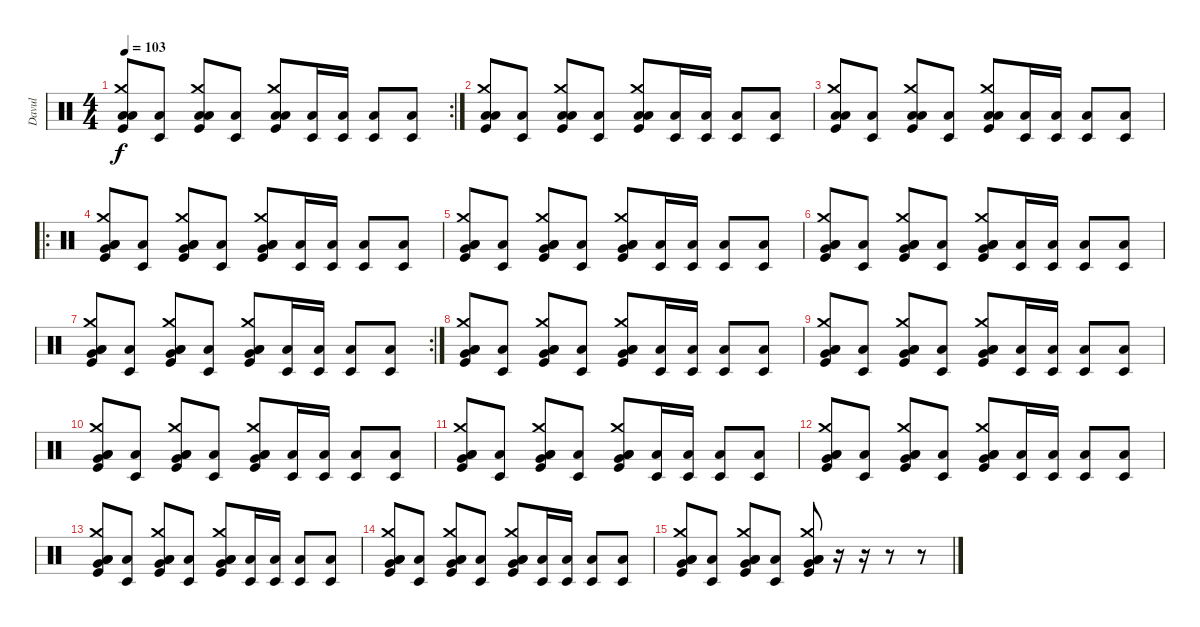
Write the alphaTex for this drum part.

\track ("Davul" "Davul") {instrument percussion}
\staff {score}
\articulation defaults
\rc 2
\ts (4 4)
\tempo 103
\clef neutral
\ks c
("Kick (hit)" "Low Tom (hit)" "Low Floor Tom (hit)" "Crash medium (hit)").8{dy f} ("Timbale low (hit)" "Low Floor Tom (hit)").8 ("Kick (hit)" "Low Tom (hit)" "Low Floor Tom (hit)" "Crash medium (hit)").8 ("Timbale low (hit)" "Low Floor Tom (hit)").8 ("Kick (hit)" "Low Tom (hit)" "Low Floor Tom (hit)" "Crash medium (hit)").8 ("Timbale low (hit)" "Low Floor Tom (hit)").16 ("Timbale low (hit)" "Low Floor Tom (hit)").16 ("Timbale low (hit)" "Low Floor Tom (hit)").8 ("Timbale low (hit)" "Low Floor Tom (hit)").8 |
("Kick (hit)" "Low Tom (hit)" "Low Floor Tom (hit)" "Crash medium (hit)").8 ("Timbale low (hit)" "Low Floor Tom (hit)").8 ("Kick (hit)" "Low Tom (hit)" "Low Floor Tom (hit)" "Crash medium (hit)").8 ("Timbale low (hit)" "Low Floor Tom (hit)").8 ("Kick (hit)" "Low Tom (hit)" "Low Floor Tom (hit)" "Crash medium (hit)").8 ("Timbale low (hit)" "Low Floor Tom (hit)").16 ("Timbale low (hit)" "Low Floor Tom (hit)").16 ("Timbale low (hit)" "Low Floor Tom (hit)").8 ("Timbale low (hit)" "Low Floor Tom (hit)").8 |
("Kick (hit)" "Low Tom (hit)" "Low Floor Tom (hit)" "Crash medium (hit)").8 ("Timbale low (hit)" "Low Floor Tom (hit)").8 ("Kick (hit)" "Low Tom (hit)" "Low Floor Tom (hit)" "Crash medium (hit)").8 ("Timbale low (hit)" "Low Floor Tom (hit)").8 ("Kick (hit)" "Low Tom (hit)" "Low Floor Tom (hit)" "Crash medium (hit)").8 ("Timbale low (hit)" "Low Floor Tom (hit)").16 ("Timbale low (hit)" "Low Floor Tom (hit)").16 ("Timbale low (hit)" "Low Floor Tom (hit)").8 ("Timbale low (hit)" "Low Floor Tom (hit)").8 |
\ro
("Kick (hit)" "Low Tom (hit)" "Low Floor Tom (hit)" "Very Low Tom (hit)" "Crash medium (hit)").8 ("Timbale low (hit)" "Low Floor Tom (hit)").8 ("Kick (hit)" "Low Tom (hit)" "Low Floor Tom (hit)" "Very Low Tom (hit)" "Crash medium (hit)").8 ("Timbale low (hit)" "Low Floor Tom (hit)").8 ("Kick (hit)" "Low Tom (hit)" "Low Floor Tom (hit)" "Very Low Tom (hit)" "Crash medium (hit)").8 ("Timbale low (hit)" "Low Floor Tom (hit)").16 ("Timbale low (hit)" "Low Floor Tom (hit)").16 ("Timbale low (hit)" "Low Floor Tom (hit)").8 ("Timbale low (hit)" "Low Floor Tom (hit)").8 |
("Kick (hit)" "Low Tom (hit)" "Low Floor Tom (hit)" "Very Low Tom (hit)" "Crash medium (hit)").8 ("Timbale low (hit)" "Low Floor Tom (hit)").8 ("Kick (hit)" "Low Tom (hit)" "Low Floor Tom (hit)" "Very Low Tom (hit)" "Crash medium (hit)").8 ("Timbale low (hit)" "Low Floor Tom (hit)").8 ("Kick (hit)" "Low Tom (hit)" "Low Floor Tom (hit)" "Very Low Tom (hit)" "Crash medium (hit)").8 ("Timbale low (hit)" "Low Floor Tom (hit)").16 ("Timbale low (hit)" "Low Floor Tom (hit)").16 ("Timbale low (hit)" "Low Floor Tom (hit)").8 ("Timbale low (hit)" "Low Floor Tom (hit)").8 |
("Kick (hit)" "Low Tom (hit)" "Low Floor Tom (hit)" "Very Low Tom (hit)" "Crash medium (hit)").8 ("Timbale low (hit)" "Low Floor Tom (hit)").8 ("Kick (hit)" "Low Tom (hit)" "Low Floor Tom (hit)" "Very Low Tom (hit)" "Crash medium (hit)").8 ("Timbale low (hit)" "Low Floor Tom (hit)").8 ("Kick (hit)" "Low Tom (hit)" "Low Floor Tom (hit)" "Very Low Tom (hit)" "Crash medium (hit)").8 ("Timbale low (hit)" "Low Floor Tom (hit)").16 ("Timbale low (hit)" "Low Floor Tom (hit)").16 ("Timbale low (hit)" "Low Floor Tom (hit)").8 ("Timbale low (hit)" "Low Floor Tom (hit)").8 |
\rc 2
("Kick (hit)" "Low Tom (hit)" "Low Floor Tom (hit)" "Very Low Tom (hit)" "Crash medium (hit)").8 ("Timbale low (hit)" "Low Floor Tom (hit)").8 ("Kick (hit)" "Low Tom (hit)" "Low Floor Tom (hit)" "Very Low Tom (hit)" "Crash medium (hit)").8 ("Timbale low (hit)" "Low Floor Tom (hit)").8 ("Kick (hit)" "Low Tom (hit)" "Low Floor Tom (hit)" "Very Low Tom (hit)" "Crash medium (hit)").8 ("Timbale low (hit)" "Low Floor Tom (hit)").16 ("Timbale low (hit)" "Low Floor Tom (hit)").16 ("Timbale low (hit)" "Low Floor Tom (hit)").8 ("Timbale low (hit)" "Low Floor Tom (hit)").8 |
("Kick (hit)" "Low Tom (hit)" "Low Floor Tom (hit)" "Very Low Tom (hit)" "Crash medium (hit)").8 ("Timbale low (hit)" "Low Floor Tom (hit)").8 ("Kick (hit)" "Low Tom (hit)" "Low Floor Tom (hit)" "Very Low Tom (hit)" "Crash medium (hit)").8 ("Timbale low (hit)" "Low Floor Tom (hit)").8 ("Kick (hit)" "Low Tom (hit)" "Low Floor Tom (hit)" "Very Low Tom (hit)" "Crash medium (hit)").8 ("Timbale low (hit)" "Low Floor Tom (hit)").16 ("Timbale low (hit)" "Low Floor Tom (hit)").16 ("Timbale low (hit)" "Low Floor Tom (hit)").8 ("Timbale low (hit)" "Low Floor Tom (hit)").8 |
("Kick (hit)" "Low Tom (hit)" "Low Floor Tom (hit)" "Very Low Tom (hit)" "Crash medium (hit)").8 ("Timbale low (hit)" "Low Floor Tom (hit)").8 ("Kick (hit)" "Low Tom (hit)" "Low Floor Tom (hit)" "Very Low Tom (hit)" "Crash medium (hit)").8 ("Timbale low (hit)" "Low Floor Tom (hit)").8 ("Kick (hit)" "Low Tom (hit)" "Low Floor Tom (hit)" "Very Low Tom (hit)" "Crash medium (hit)").8 ("Timbale low (hit)" "Low Floor Tom (hit)").16 ("Timbale low (hit)" "Low Floor Tom (hit)").16 ("Timbale low (hit)" "Low Floor Tom (hit)").8 ("Timbale low (hit)" "Low Floor Tom (hit)").8 |
("Kick (hit)" "Low Tom (hit)" "Low Floor Tom (hit)" "Very Low Tom (hit)" "Crash medium (hit)").8 ("Timbale low (hit)" "Low Floor Tom (hit)").8 ("Kick (hit)" "Low Tom (hit)" "Low Floor Tom (hit)" "Very Low Tom (hit)" "Crash medium (hit)").8 ("Timbale low (hit)" "Low Floor Tom (hit)").8 ("Kick (hit)" "Low Tom (hit)" "Low Floor Tom (hit)" "Very Low Tom (hit)" "Crash medium (hit)").8 ("Timbale low (hit)" "Low Floor Tom (hit)").16 ("Timbale low (hit)" "Low Floor Tom (hit)").16 ("Timbale low (hit)" "Low Floor Tom (hit)").8 ("Timbale low (hit)" "Low Floor Tom (hit)").8 |
("Kick (hit)" "Low Tom (hit)" "Low Floor Tom (hit)" "Very Low Tom (hit)" "Crash medium (hit)").8 ("Timbale low (hit)" "Low Floor Tom (hit)").8 ("Kick (hit)" "Low Tom (hit)" "Low Floor Tom (hit)" "Very Low Tom (hit)" "Crash medium (hit)").8 ("Timbale low (hit)" "Low Floor Tom (hit)").8 ("Kick (hit)" "Low Tom (hit)" "Low Floor Tom (hit)" "Very Low Tom (hit)" "Crash medium (hit)").8 ("Timbale low (hit)" "Low Floor Tom (hit)").16 ("Timbale low (hit)" "Low Floor Tom (hit)").16 ("Timbale low (hit)" "Low Floor Tom (hit)").8 ("Timbale low (hit)" "Low Floor Tom (hit)").8 |
("Kick (hit)" "Low Tom (hit)" "Low Floor Tom (hit)" "Very Low Tom (hit)" "Crash medium (hit)").8 ("Timbale low (hit)" "Low Floor Tom (hit)").8 ("Kick (hit)" "Low Tom (hit)" "Low Floor Tom (hit)" "Very Low Tom (hit)" "Crash medium (hit)").8 ("Timbale low (hit)" "Low Floor Tom (hit)").8 ("Kick (hit)" "Low Tom (hit)" "Low Floor Tom (hit)" "Very Low Tom (hit)" "Crash medium (hit)").8 ("Timbale low (hit)" "Low Floor Tom (hit)").16 ("Timbale low (hit)" "Low Floor Tom (hit)").16 ("Timbale low (hit)" "Low Floor Tom (hit)").8 ("Timbale low (hit)" "Low Floor Tom (hit)").8 |
("Kick (hit)" "Low Tom (hit)" "Low Floor Tom (hit)" "Very Low Tom (hit)" "Crash medium (hit)").8 ("Timbale low (hit)" "Low Floor Tom (hit)").8 ("Kick (hit)" "Low Tom (hit)" "Low Floor Tom (hit)" "Very Low Tom (hit)" "Crash medium (hit)").8 ("Timbale low (hit)" "Low Floor Tom (hit)").8 ("Kick (hit)" "Low Tom (hit)" "Low Floor Tom (hit)" "Very Low Tom (hit)" "Crash medium (hit)").8 ("Timbale low (hit)" "Low Floor Tom (hit)").16 ("Timbale low (hit)" "Low Floor Tom (hit)").16 ("Timbale low (hit)" "Low Floor Tom (hit)").8 ("Timbale low (hit)" "Low Floor Tom (hit)").8 |
("Kick (hit)" "Low Tom (hit)" "Low Floor Tom (hit)" "Very Low Tom (hit)" "Crash medium (hit)").8 ("Timbale low (hit)" "Low Floor Tom (hit)").8 ("Kick (hit)" "Low Tom (hit)" "Low Floor Tom (hit)" "Very Low Tom (hit)" "Crash medium (hit)").8 ("Timbale low (hit)" "Low Floor Tom (hit)").8 ("Kick (hit)" "Low Tom (hit)" "Low Floor Tom (hit)" "Very Low Tom (hit)" "Crash medium (hit)").8 ("Timbale low (hit)" "Low Floor Tom (hit)").16 ("Timbale low (hit)" "Low Floor Tom (hit)").16 ("Timbale low (hit)" "Low Floor Tom (hit)").8 ("Timbale low (hit)" "Low Floor Tom (hit)").8 |
("Kick (hit)" "Low Tom (hit)" "Low Floor Tom (hit)" "Very Low Tom (hit)" "Crash medium (hit)").8 ("Timbale low (hit)" "Low Floor Tom (hit)").8 ("Kick (hit)" "Low Tom (hit)" "Low Floor Tom (hit)" "Very Low Tom (hit)" "Crash medium (hit)").8 ("Timbale low (hit)" "Low Floor Tom (hit)").8 ("Kick (hit)" "Low Tom (hit)" "Low Floor Tom (hit)" "Very Low Tom (hit)" "Crash medium (hit)").8 r.16 r.16 r.8 r.8
